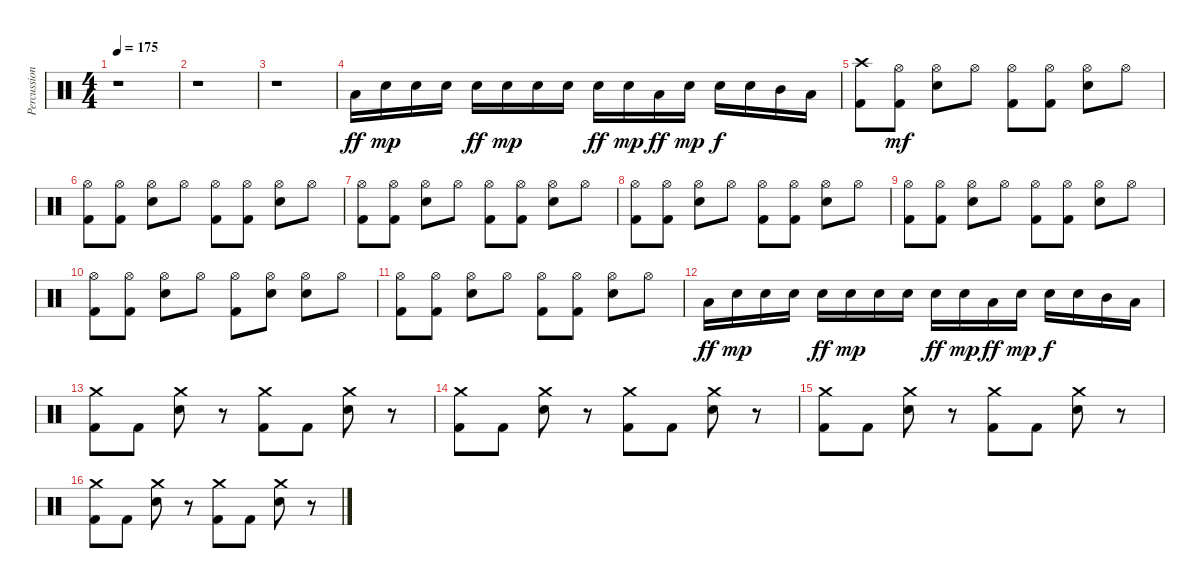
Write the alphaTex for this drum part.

\track ("Percussions" "Percussion") {instrument percussion}
\staff {score}
\articulation defaults
\ts (4 4)
\tempo 175
\clef neutral
\ks c
r.1{dy ff} |
r.1 |
r.1 |
"Low Tom (hit)".16 "Snare (hit) 2".16{dy mp} "Snare (hit) 2".16 "Snare (hit) 2".16 "Snare (hit) 2".16{dy ff} "Snare (hit) 2".16{dy mp} "Snare (hit) 2".16 "Snare (hit) 2".16 "Snare (hit) 2".16{dy ff} "Snare (hit) 2".16{dy mp} "Low Tom (hit)".16{dy ff} "Snare (hit) 2".16{dy mp} "Snare (hit) 2".16{dy f} "Snare (hit) 2".16 "Mid Tom (hit)".16 "Low Tom (hit)".16 |
("Crash high (hit)" "Kick (hit) 2").8 ("Hi-Hat (open)" "Kick (hit) 2").8{dy mf} ("Hi-Hat (open)" "Snare (hit) 2").8 "Hi-Hat (open)".8 ("Hi-Hat (open)" "Kick (hit) 2").8 ("Hi-Hat (open)" "Kick (hit) 2").8 ("Hi-Hat (open)" "Snare (hit) 2").8 "Hi-Hat (open)".8 |
("Hi-Hat (open)" "Kick (hit) 2").8 ("Hi-Hat (open)" "Kick (hit) 2").8 ("Hi-Hat (open)" "Snare (hit) 2").8 "Hi-Hat (open)".8 ("Hi-Hat (open)" "Kick (hit) 2").8 ("Hi-Hat (open)" "Kick (hit) 2").8 ("Hi-Hat (open)" "Snare (hit) 2").8 "Hi-Hat (open)".8 |
("Hi-Hat (open)" "Kick (hit) 2").8 ("Hi-Hat (open)" "Kick (hit) 2").8 ("Hi-Hat (open)" "Snare (hit) 2").8 "Hi-Hat (open)".8 ("Hi-Hat (open)" "Kick (hit) 2").8 ("Hi-Hat (open)" "Kick (hit) 2").8 ("Hi-Hat (open)" "Snare (hit) 2").8 "Hi-Hat (open)".8 |
("Hi-Hat (open)" "Kick (hit) 2").8 ("Hi-Hat (open)" "Kick (hit) 2").8 ("Hi-Hat (open)" "Snare (hit) 2").8 "Hi-Hat (open)".8 ("Hi-Hat (open)" "Kick (hit) 2").8 ("Hi-Hat (open)" "Kick (hit) 2").8 ("Hi-Hat (open)" "Snare (hit) 2").8 "Hi-Hat (open)".8 |
("Hi-Hat (open)" "Kick (hit) 2").8 ("Hi-Hat (open)" "Kick (hit) 2").8 ("Hi-Hat (open)" "Snare (hit) 2").8 "Hi-Hat (open)".8 ("Hi-Hat (open)" "Kick (hit) 2").8 ("Hi-Hat (open)" "Kick (hit) 2").8 ("Hi-Hat (open)" "Snare (hit) 2").8 "Hi-Hat (open)".8 |
("Hi-Hat (open)" "Kick (hit) 2").8 ("Hi-Hat (open)" "Kick (hit) 2").8 ("Hi-Hat (open)" "Snare (hit) 2").8 "Hi-Hat (open)".8 ("Hi-Hat (open)" "Kick (hit) 2").8 ("Hi-Hat (open)" "Snare (hit) 2").8 ("Hi-Hat (open)" "Snare (hit) 2").8 "Hi-Hat (open)".8 |
("Hi-Hat (open)" "Kick (hit) 2").8 ("Hi-Hat (open)" "Kick (hit) 2").8 ("Hi-Hat (open)" "Snare (hit) 2").8 "Hi-Hat (open)".8 ("Hi-Hat (open)" "Kick (hit) 2").8 ("Hi-Hat (open)" "Kick (hit) 2").8 ("Hi-Hat (open)" "Snare (hit) 2").8 "Hi-Hat (open)".8 |
"Low Tom (hit)".16{dy ff} "Snare (hit) 2".16{dy mp} "Snare (hit) 2".16 "Snare (hit) 2".16 "Snare (hit) 2".16{dy ff} "Snare (hit) 2".16{dy mp} "Snare (hit) 2".16 "Snare (hit) 2".16 "Snare (hit) 2".16{dy ff} "Snare (hit) 2".16{dy mp} "Low Tom (hit)".16{dy ff} "Snare (hit) 2".16{dy mp} "Snare (hit) 2".16{dy f} "Snare (hit) 2".16 "Mid Tom (hit)".16 "Low Tom (hit)".16 |
("Crash medium (hit)" "Kick (hit) 2").8 "Kick (hit) 2".8 ("Crash medium (hit)" "Snare (hit) 2").8 r.8 ("Crash medium (hit)" "Kick (hit) 2").8 "Kick (hit) 2".8 ("Crash medium (hit)" "Snare (hit) 2").8 r.8 |
("Crash medium (hit)" "Kick (hit) 2").8 "Kick (hit) 2".8 ("Crash medium (hit)" "Snare (hit) 2").8 r.8 ("Crash medium (hit)" "Kick (hit) 2").8 "Kick (hit) 2".8 ("Crash medium (hit)" "Snare (hit) 2").8 r.8 |
("Crash medium (hit)" "Kick (hit) 2").8 "Kick (hit) 2".8 ("Crash medium (hit)" "Snare (hit) 2").8 r.8 ("Crash medium (hit)" "Kick (hit) 2").8 "Kick (hit) 2".8 ("Crash medium (hit)" "Snare (hit) 2").8 r.8 |
("Crash medium (hit)" "Kick (hit) 2").8 "Kick (hit) 2".8 ("Crash medium (hit)" "Snare (hit) 2").8 r.8 ("Crash medium (hit)" "Kick (hit) 2").8 "Kick (hit) 2".8 ("Crash medium (hit)" "Snare (hit) 2").8 r.8
